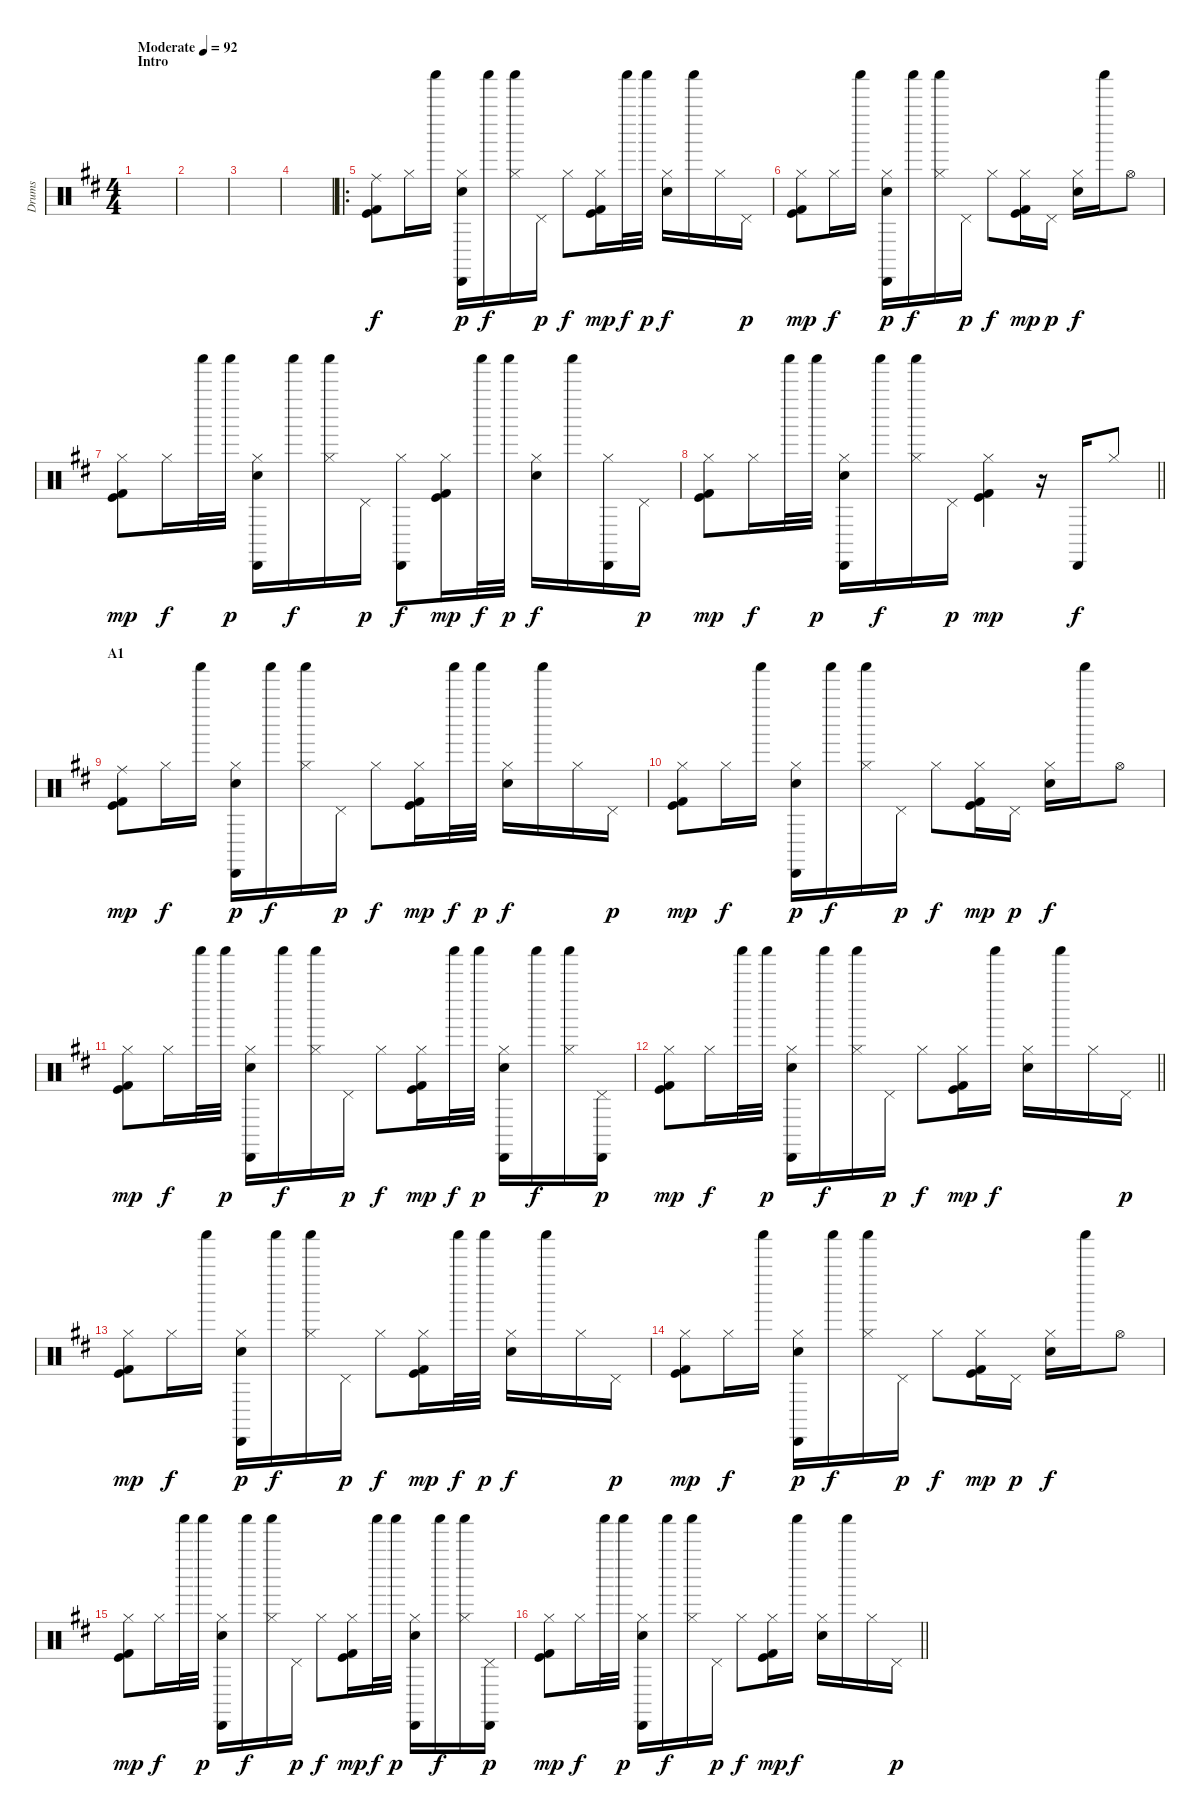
\track ("Drums" "Drums") {instrument percussion}
\staff {score}
\articulation defaults
\ts (4 4)
\section ("" "Intro")
\tempo (92 "Moderate")
\clef neutral
\ks d
|
|
|
|
\ro
("Ride (middle)" "Kick (hit) 2" "Kick (hit)").8 "Hi-Hat (closed)".16{dy f} "Shaker (hit)".16 ("Cabasa (hit)" "Hi-Hat (closed)" "Snare (hit) 2").16{dy p} "Shaker (hit)".16{dy f} ("Shaker (hit)" "Hi-Hat (closed)").16 "Pedal Hi-Hat (hit)".16{dy p} "Hi-Hat (closed)".8{dy f} ("Hi-Hat (closed)" "Kick (hit) 2" "Kick (hit)").16{dy mp} "Shaker (hit)".32{dy f} "Shaker (hit)".32{dy p} ("Hi-Hat (closed)" "Snare (hit) 2").16{dy f} "Shaker (hit)".16 "Hi-Hat (closed)".16 "Pedal Hi-Hat (hit)".16{dy p} |
("Hi-Hat (closed)" "Kick (hit) 2" "Kick (hit)").8{dy mp} "Hi-Hat (closed)".16{dy f} "Shaker (hit)".16 ("Cabasa (hit)" "Hi-Hat (closed)" "Snare (hit) 2").16{dy p} "Shaker (hit)".16{dy f} ("Shaker (hit)" "Hi-Hat (closed)").16 "Pedal Hi-Hat (hit)".16{dy p} "Hi-Hat (closed)".8{dy f} ("Hi-Hat (closed)" "Kick (hit) 2" "Kick (hit)").16{dy mp} "Pedal Hi-Hat (hit)".16{dy p} ("Hi-Hat (closed)" "Snare (hit) 2").16{dy f} "Shaker (hit)".16 "Hi-Hat (open)".8 |
("Hi-Hat (closed)" "Kick (hit) 2" "Kick (hit)").8{dy mp} "Hi-Hat (closed)".16{dy f} "Shaker (hit)".32 "Shaker (hit)".32{dy p} ("Cabasa (hit)" "Hi-Hat (closed)" "Snare (hit) 2").16 "Shaker (hit)".16{dy f} ("Shaker (hit)" "Hi-Hat (closed)").16 "Pedal Hi-Hat (hit)".16{dy p} ("Cabasa (hit)" "Hi-Hat (closed)").8{dy f} ("Hi-Hat (closed)" "Kick (hit) 2" "Kick (hit)").16{dy mp} "Shaker (hit)".32{dy f} "Shaker (hit)".32{dy p} ("Hi-Hat (closed)" "Snare (hit) 2").16{dy f} "Shaker (hit)".16 ("Cabasa (hit)" "Hi-Hat (closed)").16 "Pedal Hi-Hat (hit)".16{dy p} |
\barLineRight lightlight
("Hi-Hat (closed)" "Kick (hit) 2" "Kick (hit)").8{dy mp} "Hi-Hat (closed)".16{dy f} "Shaker (hit)".32 "Shaker (hit)".32{dy p} ("Cabasa (hit)" "Hi-Hat (closed)" "Snare (hit) 2").16 "Shaker (hit)".16{dy f} ("Shaker (hit)" "Hi-Hat (closed)").16 "Pedal Hi-Hat (hit)".16{dy p} ("Hi-Hat (closed)" "Kick (hit) 2" "Kick (hit)").4{dy mp} r.16 "Cabasa (hit)".16{dy f} "Hi-Hat (closed)".8 |
\section ("" "A1")
("Ride (middle)" "Kick (hit) 2" "Kick (hit)").8{dy mp} "Hi-Hat (closed)".16{dy f} "Shaker (hit)".16 ("Cabasa (hit)" "Hi-Hat (closed)" "Snare (hit) 2").16{dy p} "Shaker (hit)".16{dy f} ("Shaker (hit)" "Hi-Hat (closed)").16 "Pedal Hi-Hat (hit)".16{dy p} "Hi-Hat (closed)".8{dy f} ("Hi-Hat (closed)" "Kick (hit) 2" "Kick (hit)").16{dy mp} "Shaker (hit)".32{dy f} "Shaker (hit)".32{dy p} ("Hi-Hat (closed)" "Snare (hit) 2").16{dy f} "Shaker (hit)".16 "Hi-Hat (closed)".16 "Pedal Hi-Hat (hit)".16{dy p} |
("Hi-Hat (closed)" "Kick (hit) 2" "Kick (hit)").8{dy mp} "Hi-Hat (closed)".16{dy f} "Shaker (hit)".16 ("Cabasa (hit)" "Hi-Hat (closed)" "Snare (hit) 2").16{dy p} "Shaker (hit)".16{dy f} ("Shaker (hit)" "Hi-Hat (closed)").16 "Pedal Hi-Hat (hit)".16{dy p} "Hi-Hat (closed)".8{dy f} ("Hi-Hat (closed)" "Kick (hit) 2" "Kick (hit)").16{dy mp} "Pedal Hi-Hat (hit)".16{dy p} ("Hi-Hat (closed)" "Snare (hit) 2").16{dy f} "Shaker (hit)".16 "Hi-Hat (open)".8 |
("Hi-Hat (closed)" "Kick (hit) 2" "Kick (hit)").8{dy mp} "Hi-Hat (closed)".16{dy f} "Shaker (hit)".32 "Shaker (hit)".32{dy p} ("Cabasa (hit)" "Hi-Hat (closed)" "Snare (hit) 2").16 "Shaker (hit)".16{dy f} ("Shaker (hit)" "Hi-Hat (closed)").16 "Pedal Hi-Hat (hit)".16{dy p} "Hi-Hat (closed)".8{dy f} ("Hi-Hat (closed)" "Kick (hit) 2" "Kick (hit)").16{dy mp} "Shaker (hit)".32{dy f} "Shaker (hit)".32{dy p} ("Cabasa (hit)" "Hi-Hat (closed)" "Snare (hit) 2").16 "Shaker (hit)".16{dy f} ("Shaker (hit)" "Hi-Hat (closed)").16 ("Cabasa (hit)" "Pedal Hi-Hat (hit)").16{dy p} |
\barLineRight lightlight
("Hi-Hat (closed)" "Kick (hit) 2" "Kick (hit)").8{dy mp} "Hi-Hat (closed)".16{dy f} "Shaker (hit)".32 "Shaker (hit)".32{dy p} ("Cabasa (hit)" "Hi-Hat (closed)" "Snare (hit) 2").16 "Shaker (hit)".16{dy f} ("Shaker (hit)" "Hi-Hat (closed)").16 "Pedal Hi-Hat (hit)".16{dy p} "Hi-Hat (closed)".8{dy f} ("Hi-Hat (closed)" "Kick (hit) 2" "Kick (hit)").16{dy mp} "Shaker (hit)".16{dy f} ("Hi-Hat (closed)" "Snare (hit) 2").16 "Shaker (hit)".16 "Hi-Hat (closed)".16 "Pedal Hi-Hat (hit)".16{dy p} |
("Hi-Hat (closed)" "Kick (hit) 2" "Kick (hit)").8{dy mp} "Hi-Hat (closed)".16{dy f} "Shaker (hit)".16 ("Cabasa (hit)" "Hi-Hat (closed)" "Snare (hit) 2").16{dy p} "Shaker (hit)".16{dy f} ("Shaker (hit)" "Hi-Hat (closed)").16 "Pedal Hi-Hat (hit)".16{dy p} "Hi-Hat (closed)".8{dy f} ("Hi-Hat (closed)" "Kick (hit) 2" "Kick (hit)").16{dy mp} "Shaker (hit)".32{dy f} "Shaker (hit)".32{dy p} ("Hi-Hat (closed)" "Snare (hit) 2").16{dy f} "Shaker (hit)".16 "Hi-Hat (closed)".16 "Pedal Hi-Hat (hit)".16{dy p} |
("Hi-Hat (closed)" "Kick (hit) 2" "Kick (hit)").8{dy mp} "Hi-Hat (closed)".16{dy f} "Shaker (hit)".16 ("Cabasa (hit)" "Hi-Hat (closed)" "Snare (hit) 2").16{dy p} "Shaker (hit)".16{dy f} ("Shaker (hit)" "Hi-Hat (closed)").16 "Pedal Hi-Hat (hit)".16{dy p} "Hi-Hat (closed)".8{dy f} ("Hi-Hat (closed)" "Kick (hit) 2" "Kick (hit)").16{dy mp} "Pedal Hi-Hat (hit)".16{dy p} ("Hi-Hat (closed)" "Snare (hit) 2").16{dy f} "Shaker (hit)".16 "Hi-Hat (open)".8 |
("Hi-Hat (closed)" "Kick (hit) 2" "Kick (hit)").8{dy mp} "Hi-Hat (closed)".16{dy f} "Shaker (hit)".32 "Shaker (hit)".32{dy p} ("Cabasa (hit)" "Hi-Hat (closed)" "Snare (hit) 2").16 "Shaker (hit)".16{dy f} ("Shaker (hit)" "Hi-Hat (closed)").16 "Pedal Hi-Hat (hit)".16{dy p} "Hi-Hat (closed)".8{dy f} ("Hi-Hat (closed)" "Kick (hit) 2" "Kick (hit)").16{dy mp} "Shaker (hit)".32{dy f} "Shaker (hit)".32{dy p} ("Cabasa (hit)" "Hi-Hat (closed)" "Snare (hit) 2").16 "Shaker (hit)".16{dy f} ("Shaker (hit)" "Hi-Hat (closed)").16 ("Cabasa (hit)" "Pedal Hi-Hat (hit)").16{dy p} |
\barLineRight lightlight
("Hi-Hat (closed)" "Kick (hit) 2" "Kick (hit)").8{dy mp} "Hi-Hat (closed)".16{dy f} "Shaker (hit)".32 "Shaker (hit)".32{dy p} ("Cabasa (hit)" "Hi-Hat (closed)" "Snare (hit) 2").16 "Shaker (hit)".16{dy f} ("Shaker (hit)" "Hi-Hat (closed)").16 "Pedal Hi-Hat (hit)".16{dy p} "Hi-Hat (closed)".8{dy f} ("Hi-Hat (closed)" "Kick (hit) 2" "Kick (hit)").16{dy mp} "Shaker (hit)".16{dy f} ("Hi-Hat (closed)" "Snare (hit) 2").16 "Shaker (hit)".16 "Hi-Hat (closed)".16 "Pedal Hi-Hat (hit)".16{dy p}
